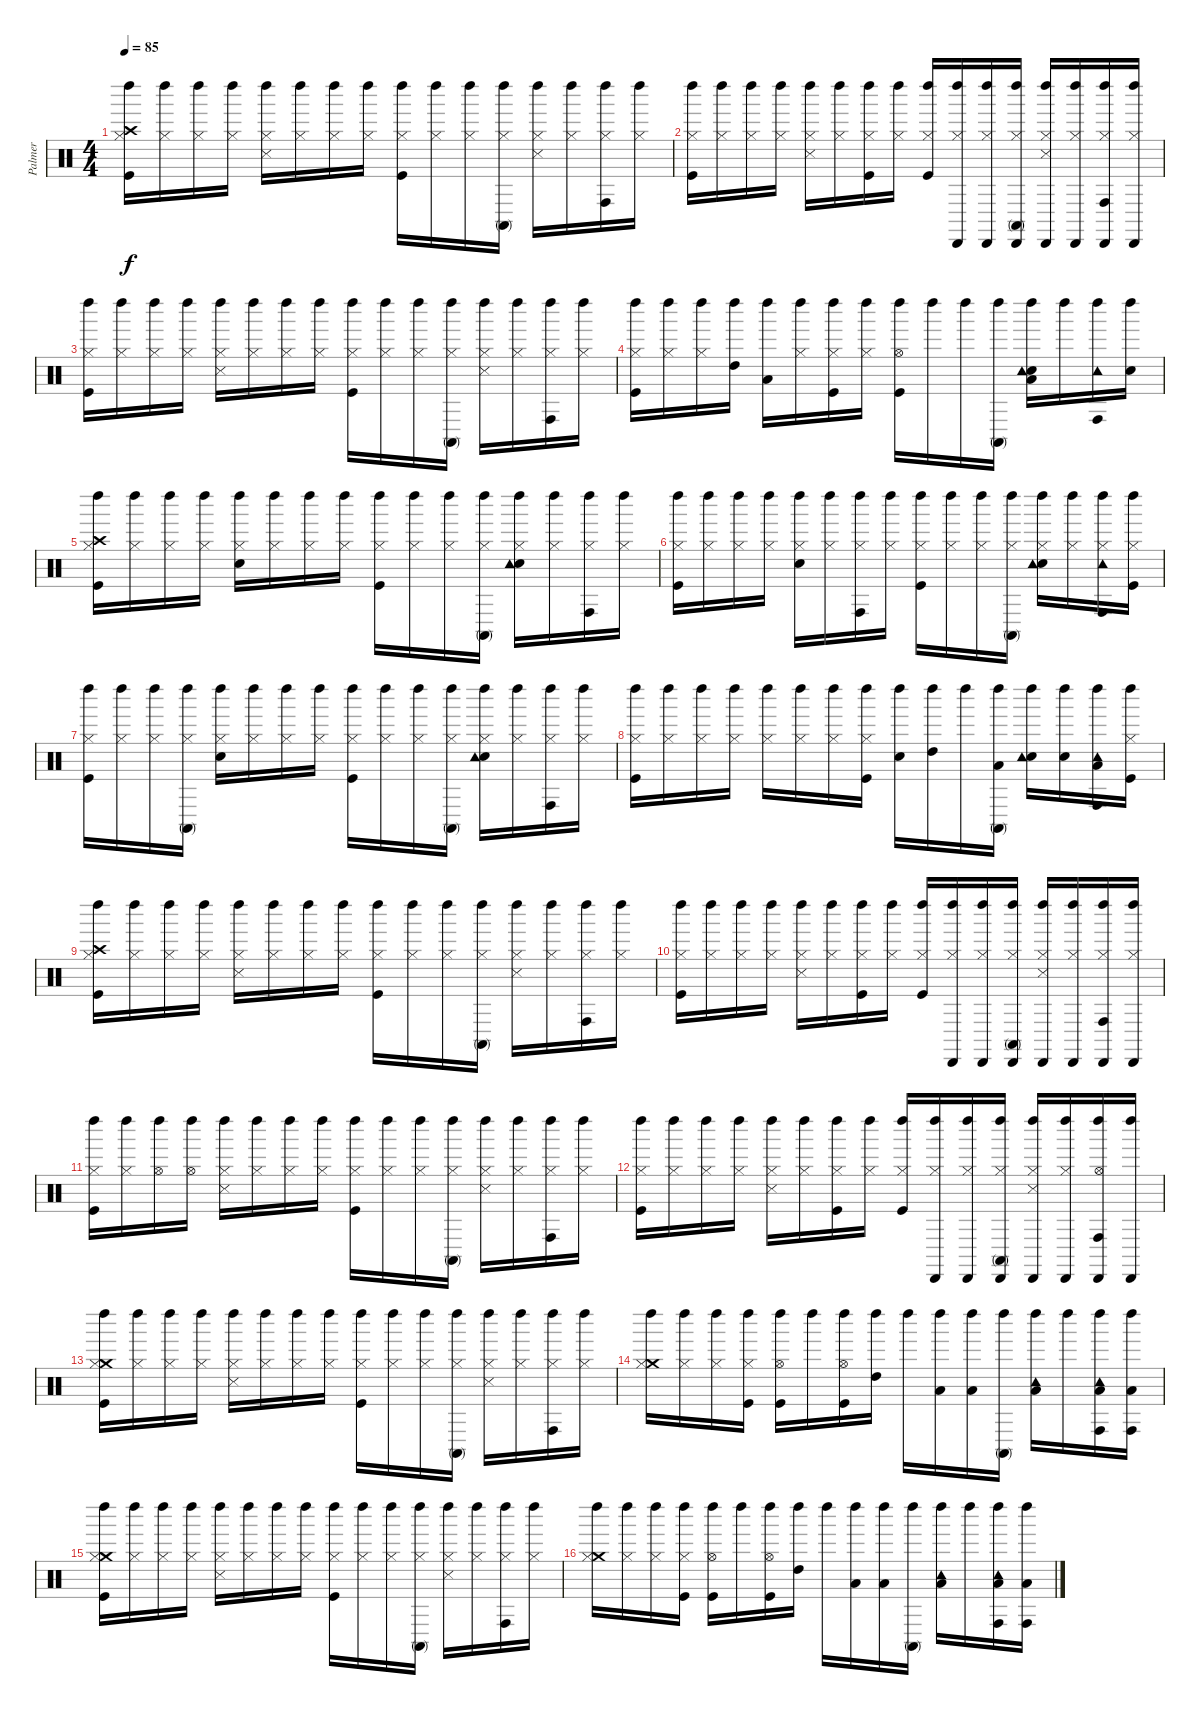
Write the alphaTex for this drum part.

\track ("Palmer" "Palmer") {instrument percussion}
\staff {score}
\articulation defaults
\ts (4 4)
\tempo 85
\clef neutral
\ks c
("Kick (hit)" "Hi-Hat (closed)" "Crash high (hit)" "Left Maraca (hit)").16{dy f} ("Hi-Hat (closed)" "Left Maraca (hit)").16 ("Hi-Hat (closed)" "Left Maraca (hit)").16 ("Hi-Hat (closed)" "Left Maraca (hit)").16 ("Hi-Hat (closed)" "Snare (side stick) 3" "Left Maraca (hit)").16 ("Hi-Hat (closed)" "Left Maraca (hit)").16 ("Hi-Hat (closed)" "Left Maraca (hit)").16 ("Hi-Hat (closed)" "Left Maraca (hit)").16 ("Kick (hit)" "Hi-Hat (closed)" "Left Maraca (hit)").16 ("Hi-Hat (closed)" "Left Maraca (hit)").16 ("Hi-Hat (closed)" "Left Maraca (hit)").16 ("Hi-Hat (closed)" "Conga high (mute)" "Left Maraca (hit)").16 ("Hi-Hat (closed)" "Snare (side stick) 3" "Left Maraca (hit)").16 ("Hi-Hat (closed)" "Left Maraca (hit)").16 ("Hi-Hat (closed)" "Conga high (hit)" "Left Maraca (hit)").16 ("Hi-Hat (closed)" "Left Maraca (hit)").16 |
("Kick (hit)" "Hi-Hat (closed)" "Left Maraca (hit)").16 ("Hi-Hat (closed)" "Left Maraca (hit)").16 ("Hi-Hat (closed)" "Left Maraca (hit)").16 ("Hi-Hat (closed)" "Left Maraca (hit)").16 ("Hi-Hat (closed)" "Snare (side stick) 3" "Left Maraca (hit)").16 ("Hi-Hat (closed)" "Left Maraca (hit)").16 ("Kick (hit)" "Hi-Hat (closed)" "Left Maraca (hit)").16 ("Hi-Hat (closed)" "Left Maraca (hit)").16 ("Kick (hit)" "Hi-Hat (closed)" "Left Maraca (hit)").16 ("Hi-Hat (closed)" "Left Maraca (hit)" "Cabasa (hit)").16 ("Hi-Hat (closed)" "Left Maraca (hit)" "Cabasa (hit)").16 ("Hi-Hat (closed)" "Conga high (mute)" "Left Maraca (hit)" "Cabasa (hit)").16 ("Hi-Hat (closed)" "Snare (side stick) 3" "Left Maraca (hit)" "Cabasa (hit)").16 ("Hi-Hat (closed)" "Left Maraca (hit)" "Cabasa (hit)").16 ("Hi-Hat (closed)" "Conga high (hit)" "Left Maraca (hit)" "Cabasa (hit)").16 ("Hi-Hat (closed)" "Left Maraca (hit)" "Cabasa (hit)").16 |
("Kick (hit)" "Hi-Hat (closed)" "Left Maraca (hit)").16 ("Hi-Hat (closed)" "Left Maraca (hit)").16 ("Hi-Hat (closed)" "Left Maraca (hit)").16 ("Hi-Hat (closed)" "Left Maraca (hit)").16 ("Hi-Hat (closed)" "Snare (side stick) 3" "Left Maraca (hit)").16 ("Hi-Hat (closed)" "Left Maraca (hit)").16 ("Hi-Hat (closed)" "Left Maraca (hit)").16 ("Hi-Hat (closed)" "Left Maraca (hit)").16 ("Kick (hit)" "Hi-Hat (closed)" "Left Maraca (hit)").16 ("Hi-Hat (closed)" "Left Maraca (hit)").16 ("Hi-Hat (closed)" "Left Maraca (hit)").16 ("Hi-Hat (closed)" "Conga high (mute)" "Left Maraca (hit)").16 ("Hi-Hat (closed)" "Snare (side stick) 3" "Left Maraca (hit)").16 ("Hi-Hat (closed)" "Left Maraca (hit)").16 ("Hi-Hat (closed)" "Conga high (hit)" "Left Maraca (hit)").16 ("Hi-Hat (closed)" "Left Maraca (hit)").16 |
("Kick (hit)" "Hi-Hat (closed)" "Left Maraca (hit)").16 ("Hi-Hat (closed)" "Left Maraca (hit)").16 ("Hi-Hat (closed)" "Left Maraca (hit)").16 ("High Tom (hit)" "Left Maraca (hit)").16 ("Low Tom (hit)" "Left Maraca (hit)").16 ("Hi-Hat (closed)" "Left Maraca (hit)").16 ("Kick (hit)" "Hi-Hat (closed)" "Left Maraca (hit)").16 ("Hi-Hat (closed)" "Left Maraca (hit)").16 ("Kick (hit)" "Hi-Hat (open)" "Left Maraca (hit)").16 "Left Maraca (hit)".16 "Left Maraca (hit)".16 ("Conga high (mute)" "Left Maraca (hit)").16 ("Snare (hit) 2" "Low Floor Tom (hit)" "Tambourine (hit)" "Left Maraca (hit)").16 "Left Maraca (hit)".16 ("Conga high (hit)" "Tambourine (hit)" "Left Maraca (hit)").16 ("Snare (hit) 2" "Left Maraca (hit)").16 |
("Kick (hit)" "Hi-Hat (closed)" "Crash high (hit)" "Left Maraca (hit)").16 ("Hi-Hat (closed)" "Left Maraca (hit)").16 ("Hi-Hat (closed)" "Left Maraca (hit)").16 ("Hi-Hat (closed)" "Left Maraca (hit)").16 ("Snare (hit) 2" "Hi-Hat (closed)" "Left Maraca (hit)").16 ("Hi-Hat (closed)" "Left Maraca (hit)").16 ("Hi-Hat (closed)" "Left Maraca (hit)").16 ("Hi-Hat (closed)" "Left Maraca (hit)").16 ("Kick (hit)" "Hi-Hat (closed)" "Left Maraca (hit)").16 ("Hi-Hat (closed)" "Left Maraca (hit)").16 ("Hi-Hat (closed)" "Left Maraca (hit)").16 ("Hi-Hat (closed)" "Conga high (mute)" "Left Maraca (hit)").16 ("Snare (hit) 2" "Hi-Hat (closed)" "Tambourine (hit)" "Left Maraca (hit)").16 ("Hi-Hat (closed)" "Left Maraca (hit)").16 ("Hi-Hat (closed)" "Conga high (hit)" "Left Maraca (hit)").16 ("Hi-Hat (closed)" "Left Maraca (hit)").16 |
("Kick (hit)" "Hi-Hat (closed)" "Left Maraca (hit)").16 ("Hi-Hat (closed)" "Left Maraca (hit)").16 ("Hi-Hat (closed)" "Left Maraca (hit)").16 ("Hi-Hat (closed)" "Left Maraca (hit)").16 ("Snare (hit) 2" "Hi-Hat (closed)" "Left Maraca (hit)").16 ("Hi-Hat (closed)" "Left Maraca (hit)").16 ("Hi-Hat (closed)" "Conga high (hit)" "Left Maraca (hit)").16 ("Hi-Hat (closed)" "Left Maraca (hit)").16 ("Kick (hit)" "Hi-Hat (closed)" "Left Maraca (hit)").16 ("Hi-Hat (closed)" "Left Maraca (hit)").16 ("Hi-Hat (closed)" "Left Maraca (hit)").16 ("Hi-Hat (closed)" "Conga high (mute)" "Left Maraca (hit)").16 ("Snare (hit) 2" "Hi-Hat (closed)" "Tambourine (hit)" "Left Maraca (hit)").16 ("Hi-Hat (closed)" "Left Maraca (hit)").16 ("Hi-Hat (closed)" "Conga high (hit)" "Tambourine (hit)" "Left Maraca (hit)").16 ("Kick (hit)" "Hi-Hat (closed)" "Left Maraca (hit)").16 |
("Kick (hit)" "Hi-Hat (closed)" "Left Maraca (hit)").16 ("Hi-Hat (closed)" "Left Maraca (hit)").16 ("Hi-Hat (closed)" "Left Maraca (hit)").16 ("Hi-Hat (closed)" "Conga high (mute)" "Left Maraca (hit)").16 ("Snare (hit) 2" "Hi-Hat (closed)" "Left Maraca (hit)").16 ("Hi-Hat (closed)" "Left Maraca (hit)").16 ("Hi-Hat (closed)" "Left Maraca (hit)").16 ("Hi-Hat (closed)" "Left Maraca (hit)").16 ("Kick (hit)" "Hi-Hat (closed)" "Left Maraca (hit)").16 ("Hi-Hat (closed)" "Left Maraca (hit)").16 ("Hi-Hat (closed)" "Left Maraca (hit)").16 ("Hi-Hat (closed)" "Conga high (mute)" "Left Maraca (hit)").16 ("Snare (hit) 2" "Hi-Hat (closed)" "Tambourine (hit)" "Left Maraca (hit)").16 ("Hi-Hat (closed)" "Left Maraca (hit)").16 ("Hi-Hat (closed)" "Conga high (hit)" "Left Maraca (hit)").16 ("Hi-Hat (closed)" "Left Maraca (hit)").16 |
("Kick (hit)" "Hi-Hat (closed)" "Left Maraca (hit)").16 ("Hi-Hat (closed)" "Left Maraca (hit)").16 ("Hi-Hat (closed)" "Left Maraca (hit)").16 ("Hi-Hat (closed)" "Left Maraca (hit)").16 ("Hi-Hat (closed)" "Left Maraca (hit)").16 ("Hi-Hat (closed)" "Left Maraca (hit)").16 ("Hi-Hat (closed)" "Left Maraca (hit)").16 ("Kick (hit)" "Hi-Hat (closed)" "Left Maraca (hit)").16 ("Snare (hit) 2" "Left Maraca (hit)").16 ("High Tom (hit)" "Left Maraca (hit)").16 "Left Maraca (hit)".16 ("Low Tom (hit)" "Conga high (mute)" "Left Maraca (hit)").16 ("Snare (hit) 2" "Tambourine (hit)" "Left Maraca (hit)").16 ("Snare (hit) 2" "Left Maraca (hit)").16 ("Low Floor Tom (hit)" "Conga high (hit)" "Tambourine (hit)" "Left Maraca (hit)").16 ("Kick (hit)" "Hi-Hat (closed)" "Left Maraca (hit)").16 |
("Kick (hit)" "Hi-Hat (closed)" "Crash high (hit)" "Left Maraca (hit)").16 ("Hi-Hat (closed)" "Left Maraca (hit)").16 ("Hi-Hat (closed)" "Left Maraca (hit)").16 ("Hi-Hat (closed)" "Left Maraca (hit)").16 ("Hi-Hat (closed)" "Snare (side stick) 3" "Left Maraca (hit)").16 ("Hi-Hat (closed)" "Left Maraca (hit)").16 ("Hi-Hat (closed)" "Left Maraca (hit)").16 ("Hi-Hat (closed)" "Left Maraca (hit)").16 ("Kick (hit)" "Hi-Hat (closed)" "Left Maraca (hit)").16 ("Hi-Hat (closed)" "Left Maraca (hit)").16 ("Hi-Hat (closed)" "Left Maraca (hit)").16 ("Hi-Hat (closed)" "Conga high (mute)" "Left Maraca (hit)").16 ("Hi-Hat (closed)" "Snare (side stick) 3" "Left Maraca (hit)").16 ("Hi-Hat (closed)" "Left Maraca (hit)").16 ("Hi-Hat (closed)" "Conga high (hit)" "Left Maraca (hit)").16 ("Hi-Hat (closed)" "Left Maraca (hit)").16 |
("Kick (hit)" "Hi-Hat (closed)" "Left Maraca (hit)").16 ("Hi-Hat (closed)" "Left Maraca (hit)").16 ("Hi-Hat (closed)" "Left Maraca (hit)").16 ("Hi-Hat (closed)" "Left Maraca (hit)").16 ("Hi-Hat (closed)" "Snare (side stick) 3" "Left Maraca (hit)").16 ("Hi-Hat (closed)" "Left Maraca (hit)").16 ("Kick (hit)" "Hi-Hat (closed)" "Left Maraca (hit)").16 ("Hi-Hat (closed)" "Left Maraca (hit)").16 ("Kick (hit)" "Hi-Hat (closed)" "Left Maraca (hit)").16 ("Hi-Hat (closed)" "Left Maraca (hit)" "Cabasa (hit)").16 ("Hi-Hat (closed)" "Left Maraca (hit)" "Cabasa (hit)").16 ("Hi-Hat (closed)" "Conga high (mute)" "Left Maraca (hit)" "Cabasa (hit)").16 ("Hi-Hat (closed)" "Snare (side stick) 3" "Left Maraca (hit)" "Cabasa (hit)").16 ("Hi-Hat (closed)" "Left Maraca (hit)" "Cabasa (hit)").16 ("Hi-Hat (closed)" "Conga high (hit)" "Left Maraca (hit)" "Cabasa (hit)").16 ("Hi-Hat (closed)" "Left Maraca (hit)" "Cabasa (hit)").16 |
("Kick (hit)" "Hi-Hat (closed)" "Left Maraca (hit)").16 ("Hi-Hat (closed)" "Left Maraca (hit)").16 ("Hi-Hat (open)" "Left Maraca (hit)").16 ("Hi-Hat (open)" "Left Maraca (hit)").16 ("Hi-Hat (closed)" "Snare (side stick) 3" "Left Maraca (hit)").16 ("Hi-Hat (closed)" "Left Maraca (hit)").16 ("Hi-Hat (closed)" "Left Maraca (hit)").16 ("Hi-Hat (closed)" "Left Maraca (hit)").16 ("Kick (hit)" "Hi-Hat (closed)" "Left Maraca (hit)").16 ("Hi-Hat (closed)" "Left Maraca (hit)").16 ("Hi-Hat (closed)" "Left Maraca (hit)").16 ("Hi-Hat (closed)" "Conga high (mute)" "Left Maraca (hit)").16 ("Hi-Hat (closed)" "Snare (side stick) 3" "Left Maraca (hit)").16 ("Hi-Hat (closed)" "Left Maraca (hit)").16 ("Hi-Hat (closed)" "Conga high (hit)" "Left Maraca (hit)").16 ("Hi-Hat (closed)" "Left Maraca (hit)").16 |
("Kick (hit)" "Hi-Hat (closed)" "Left Maraca (hit)").16 ("Hi-Hat (closed)" "Left Maraca (hit)").16 ("Hi-Hat (closed)" "Left Maraca (hit)").16 ("Hi-Hat (closed)" "Left Maraca (hit)").16 ("Hi-Hat (closed)" "Snare (side stick) 3" "Left Maraca (hit)").16 ("Hi-Hat (closed)" "Left Maraca (hit)").16 ("Kick (hit)" "Hi-Hat (closed)" "Left Maraca (hit)").16 ("Hi-Hat (closed)" "Left Maraca (hit)").16 ("Kick (hit)" "Hi-Hat (closed)" "Left Maraca (hit)").16 ("Hi-Hat (closed)" "Left Maraca (hit)" "Cabasa (hit)").16 ("Hi-Hat (closed)" "Left Maraca (hit)" "Cabasa (hit)").16 ("Hi-Hat (closed)" "Conga high (mute)" "Left Maraca (hit)" "Cabasa (hit)").16 ("Hi-Hat (closed)" "Snare (side stick) 3" "Left Maraca (hit)" "Cabasa (hit)").16 ("Hi-Hat (closed)" "Left Maraca (hit)" "Cabasa (hit)").16 ("Hi-Hat (open)" "Conga high (hit)" "Left Maraca (hit)" "Cabasa (hit)").16 ("Left Maraca (hit)" "Cabasa (hit)").16 |
("Crash medium (hit)" "Kick (hit)" "Hi-Hat (closed)" "Left Maraca (hit)").16 ("Hi-Hat (closed)" "Left Maraca (hit)").16 ("Hi-Hat (closed)" "Left Maraca (hit)").16 ("Hi-Hat (closed)" "Left Maraca (hit)").16 ("Hi-Hat (closed)" "Snare (side stick) 3" "Left Maraca (hit)").16 ("Hi-Hat (closed)" "Left Maraca (hit)").16 ("Hi-Hat (closed)" "Left Maraca (hit)").16 ("Hi-Hat (closed)" "Left Maraca (hit)").16 ("Kick (hit)" "Hi-Hat (closed)" "Left Maraca (hit)").16 ("Hi-Hat (closed)" "Left Maraca (hit)").16 ("Hi-Hat (closed)" "Left Maraca (hit)").16 ("Hi-Hat (closed)" "Conga high (mute)" "Left Maraca (hit)").16 ("Hi-Hat (closed)" "Snare (side stick) 3" "Left Maraca (hit)").16 ("Hi-Hat (closed)" "Left Maraca (hit)").16 ("Hi-Hat (closed)" "Conga high (hit)" "Left Maraca (hit)").16 ("Hi-Hat (closed)" "Left Maraca (hit)").16 |
("Crash medium (hit)" "Hi-Hat (closed)" "Left Maraca (hit)").16 ("Hi-Hat (closed)" "Left Maraca (hit)").16 ("Hi-Hat (closed)" "Left Maraca (hit)").16 ("Kick (hit)" "Hi-Hat (closed)" "Left Maraca (hit)").16 ("Kick (hit)" "Hi-Hat (open)" "Left Maraca (hit)").16 "Left Maraca (hit)".16 ("Kick (hit)" "Hi-Hat (open)" "Left Maraca (hit)").16 ("High Tom (hit)" "Left Maraca (hit)").16 "Left Maraca (hit)".16 ("Low Tom (hit)" "Left Maraca (hit)").16 ("Low Tom (hit)" "Left Maraca (hit)").16 ("Conga high (mute)" "Left Maraca (hit)").16 ("Low Tom (hit)" "Tambourine (hit)" "Left Maraca (hit)").16 "Left Maraca (hit)".16 ("Low Floor Tom (hit)" "Conga high (hit)" "Tambourine (hit)" "Left Maraca (hit)").16 ("Low Floor Tom (hit)" "Conga high (hit)" "Left Maraca (hit)").16 |
("Crash medium (hit)" "Kick (hit)" "Hi-Hat (closed)" "Left Maraca (hit)").16 ("Hi-Hat (closed)" "Left Maraca (hit)").16 ("Hi-Hat (closed)" "Left Maraca (hit)").16 ("Hi-Hat (closed)" "Left Maraca (hit)").16 ("Hi-Hat (closed)" "Snare (side stick) 3" "Left Maraca (hit)").16 ("Hi-Hat (closed)" "Left Maraca (hit)").16 ("Hi-Hat (closed)" "Left Maraca (hit)").16 ("Hi-Hat (closed)" "Left Maraca (hit)").16 ("Kick (hit)" "Hi-Hat (closed)" "Left Maraca (hit)").16 ("Hi-Hat (closed)" "Left Maraca (hit)").16 ("Hi-Hat (closed)" "Left Maraca (hit)").16 ("Hi-Hat (closed)" "Conga high (mute)" "Left Maraca (hit)").16 ("Hi-Hat (closed)" "Snare (side stick) 3" "Left Maraca (hit)").16 ("Hi-Hat (closed)" "Left Maraca (hit)").16 ("Hi-Hat (closed)" "Conga high (hit)" "Left Maraca (hit)").16 ("Hi-Hat (closed)" "Left Maraca (hit)").16 |
("Crash medium (hit)" "Hi-Hat (closed)" "Left Maraca (hit)").16 ("Hi-Hat (closed)" "Left Maraca (hit)").16 ("Hi-Hat (closed)" "Left Maraca (hit)").16 ("Kick (hit)" "Hi-Hat (closed)" "Left Maraca (hit)").16 ("Kick (hit)" "Hi-Hat (open)" "Left Maraca (hit)").16 "Left Maraca (hit)".16 ("Kick (hit)" "Hi-Hat (open)" "Left Maraca (hit)").16 ("High Tom (hit)" "Left Maraca (hit)").16 "Left Maraca (hit)".16 ("Low Tom (hit)" "Left Maraca (hit)").16 ("Low Tom (hit)" "Left Maraca (hit)").16 ("Conga high (mute)" "Left Maraca (hit)").16 ("Low Tom (hit)" "Tambourine (hit)" "Left Maraca (hit)").16 "Left Maraca (hit)".16 ("Low Floor Tom (hit)" "Conga high (hit)" "Tambourine (hit)" "Left Maraca (hit)").16 ("Low Floor Tom (hit)" "Conga high (hit)" "Left Maraca (hit)").16
